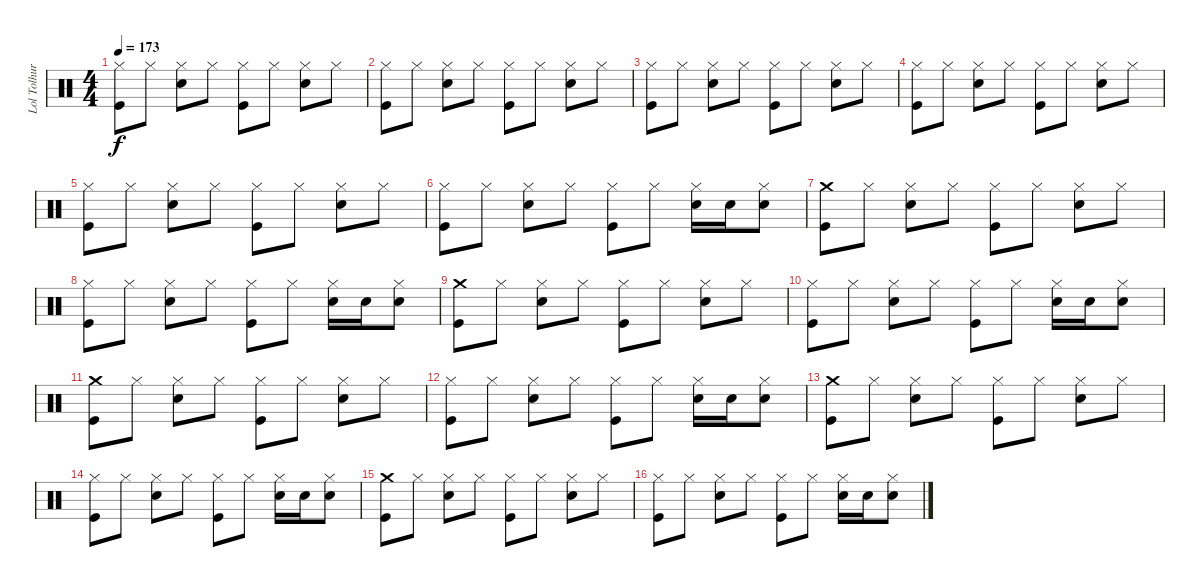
\track ("Lol Tolhurst" "Lol Tolhur") {instrument percussion}
\staff {score}
\articulation defaults
\ts (4 4)
\tempo 173
\clef neutral
\ks c
("Hi-Hat (closed)" "Kick (hit)").8{dy f} "Hi-Hat (closed)".8 ("Hi-Hat (closed)" "Snare (hit) 2").8 "Hi-Hat (closed)".8 ("Hi-Hat (closed)" "Kick (hit)").8 "Hi-Hat (closed)".8 ("Hi-Hat (closed)" "Snare (hit) 2").8 "Hi-Hat (closed)".8 |
("Hi-Hat (closed)" "Kick (hit)").8 "Hi-Hat (closed)".8 ("Hi-Hat (closed)" "Snare (hit) 2").8 "Hi-Hat (closed)".8 ("Hi-Hat (closed)" "Kick (hit)").8 "Hi-Hat (closed)".8 ("Hi-Hat (closed)" "Snare (hit) 2").8 "Hi-Hat (closed)".8 |
("Hi-Hat (closed)" "Kick (hit)").8 "Hi-Hat (closed)".8 ("Hi-Hat (closed)" "Snare (hit) 2").8 "Hi-Hat (closed)".8 ("Hi-Hat (closed)" "Kick (hit)").8 "Hi-Hat (closed)".8 ("Hi-Hat (closed)" "Snare (hit) 2").8 "Hi-Hat (closed)".8 |
("Hi-Hat (closed)" "Kick (hit)").8 "Hi-Hat (closed)".8 ("Hi-Hat (closed)" "Snare (hit) 2").8 "Hi-Hat (closed)".8 ("Hi-Hat (closed)" "Kick (hit)").8 "Hi-Hat (closed)".8 ("Hi-Hat (closed)" "Snare (hit) 2").8 "Hi-Hat (closed)".8 |
("Hi-Hat (closed)" "Kick (hit)").8 "Hi-Hat (closed)".8 ("Hi-Hat (closed)" "Snare (hit) 2").8 "Hi-Hat (closed)".8 ("Hi-Hat (closed)" "Kick (hit)").8 "Hi-Hat (closed)".8 ("Hi-Hat (closed)" "Snare (hit) 2").8 "Hi-Hat (closed)".8 |
("Hi-Hat (closed)" "Kick (hit)").8 "Hi-Hat (closed)".8 ("Hi-Hat (closed)" "Snare (hit) 2").8 "Hi-Hat (closed)".8 ("Hi-Hat (closed)" "Kick (hit)").8 "Hi-Hat (closed)".8 ("Hi-Hat (closed)" "Snare (hit) 2").16 "Snare (hit) 2".16 ("Hi-Hat (closed)" "Snare (hit) 2").8 |
("Crash medium (hit)" "Kick (hit)").8 "Hi-Hat (closed)".8 ("Hi-Hat (closed)" "Snare (hit) 2").8 "Hi-Hat (closed)".8 ("Hi-Hat (closed)" "Kick (hit)").8 "Hi-Hat (closed)".8 ("Hi-Hat (closed)" "Snare (hit) 2").8 "Hi-Hat (closed)".8 |
("Hi-Hat (closed)" "Kick (hit)").8 "Hi-Hat (closed)".8 ("Hi-Hat (closed)" "Snare (hit) 2").8 "Hi-Hat (closed)".8 ("Hi-Hat (closed)" "Kick (hit)").8 "Hi-Hat (closed)".8 ("Hi-Hat (closed)" "Snare (hit) 2").16 "Snare (hit) 2".16 ("Hi-Hat (closed)" "Snare (hit) 2").8 |
("Crash medium (hit)" "Kick (hit)").8 "Hi-Hat (closed)".8 ("Hi-Hat (closed)" "Snare (hit) 2").8 "Hi-Hat (closed)".8 ("Hi-Hat (closed)" "Kick (hit)").8 "Hi-Hat (closed)".8 ("Hi-Hat (closed)" "Snare (hit) 2").8 "Hi-Hat (closed)".8 |
("Hi-Hat (closed)" "Kick (hit)").8 "Hi-Hat (closed)".8 ("Hi-Hat (closed)" "Snare (hit) 2").8 "Hi-Hat (closed)".8 ("Hi-Hat (closed)" "Kick (hit)").8 "Hi-Hat (closed)".8 ("Hi-Hat (closed)" "Snare (hit) 2").16 "Snare (hit) 2".16 ("Hi-Hat (closed)" "Snare (hit) 2").8 |
("Crash medium (hit)" "Kick (hit)").8 "Hi-Hat (closed)".8 ("Hi-Hat (closed)" "Snare (hit) 2").8 "Hi-Hat (closed)".8 ("Hi-Hat (closed)" "Kick (hit)").8 "Hi-Hat (closed)".8 ("Hi-Hat (closed)" "Snare (hit) 2").8 "Hi-Hat (closed)".8 |
("Hi-Hat (closed)" "Kick (hit)").8 "Hi-Hat (closed)".8 ("Hi-Hat (closed)" "Snare (hit) 2").8 "Hi-Hat (closed)".8 ("Hi-Hat (closed)" "Kick (hit)").8 "Hi-Hat (closed)".8 ("Hi-Hat (closed)" "Snare (hit) 2").16 "Snare (hit) 2".16 ("Hi-Hat (closed)" "Snare (hit) 2").8 |
("Crash medium (hit)" "Kick (hit)").8 "Hi-Hat (closed)".8 ("Hi-Hat (closed)" "Snare (hit) 2").8 "Hi-Hat (closed)".8 ("Hi-Hat (closed)" "Kick (hit)").8 "Hi-Hat (closed)".8 ("Hi-Hat (closed)" "Snare (hit) 2").8 "Hi-Hat (closed)".8 |
("Hi-Hat (closed)" "Kick (hit)").8 "Hi-Hat (closed)".8 ("Hi-Hat (closed)" "Snare (hit) 2").8 "Hi-Hat (closed)".8 ("Hi-Hat (closed)" "Kick (hit)").8 "Hi-Hat (closed)".8 ("Hi-Hat (closed)" "Snare (hit) 2").16 "Snare (hit) 2".16 ("Hi-Hat (closed)" "Snare (hit) 2").8 |
("Crash medium (hit)" "Kick (hit)").8 "Hi-Hat (closed)".8 ("Hi-Hat (closed)" "Snare (hit) 2").8 "Hi-Hat (closed)".8 ("Hi-Hat (closed)" "Kick (hit)").8 "Hi-Hat (closed)".8 ("Hi-Hat (closed)" "Snare (hit) 2").8 "Hi-Hat (closed)".8 |
("Hi-Hat (closed)" "Kick (hit)").8 "Hi-Hat (closed)".8 ("Hi-Hat (closed)" "Snare (hit) 2").8 "Hi-Hat (closed)".8 ("Hi-Hat (closed)" "Kick (hit)").8 "Hi-Hat (closed)".8 ("Hi-Hat (closed)" "Snare (hit) 2").16 "Snare (hit) 2".16 ("Hi-Hat (closed)" "Snare (hit) 2").8
